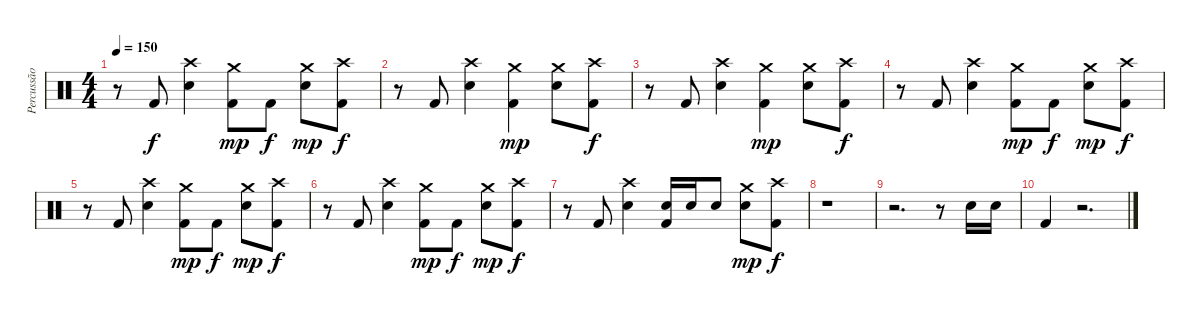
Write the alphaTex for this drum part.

\track ("Percussão" "Percussão") {instrument percussion}
\staff {score}
\articulation defaults
\ts (4 4)
\tempo 150
\clef neutral
\ks c
r.8{dy f} "Kick (hit) 2".8 ("Crash high (hit)" "Snare (hit) 2").4 ("Crash medium (hit)" "Kick (hit) 2").8{dy mp} "Kick (hit) 2".8{dy f} ("Crash medium (hit)" "Snare (hit) 2").8{dy mp} ("Crash high (hit)" "Kick (hit) 2").8{dy f} |
r.8 "Kick (hit) 2".8 ("Crash high (hit)" "Snare (hit) 2").4 ("Crash medium (hit)" "Kick (hit) 2").4{dy mp} ("Crash medium (hit)" "Snare (hit) 2").8 ("Crash high (hit)" "Kick (hit) 2").8{dy f} |
r.8 "Kick (hit) 2".8 ("Crash high (hit)" "Snare (hit) 2").4 ("Crash medium (hit)" "Kick (hit) 2").4{dy mp} ("Crash medium (hit)" "Snare (hit) 2").8 ("Crash high (hit)" "Kick (hit) 2").8{dy f} |
r.8 "Kick (hit) 2".8 ("Crash high (hit)" "Snare (hit) 2").4 ("Crash medium (hit)" "Kick (hit) 2").8{dy mp} "Kick (hit) 2".8{dy f} ("Crash medium (hit)" "Snare (hit) 2").8{dy mp} ("Crash high (hit)" "Kick (hit) 2").8{dy f} |
r.8 "Kick (hit) 2".8 ("Crash high (hit)" "Snare (hit) 2").4 ("Crash medium (hit)" "Kick (hit) 2").8{dy mp} "Kick (hit) 2".8{dy f} ("Crash medium (hit)" "Snare (hit) 2").8{dy mp} ("Crash high (hit)" "Kick (hit) 2").8{dy f} |
r.8 "Kick (hit) 2".8 ("Crash high (hit)" "Snare (hit) 2").4 ("Crash medium (hit)" "Kick (hit) 2").8{dy mp} "Kick (hit) 2".8{dy f} ("Crash medium (hit)" "Snare (hit) 2").8{dy mp} ("Crash high (hit)" "Kick (hit) 2").8{dy f} |
r.8 "Kick (hit) 2".8 ("Crash high (hit)" "Snare (hit) 2").4 ("Snare (hit) 2" "Kick (hit) 2").16 "Snare (hit) 2".16 "Snare (hit) 2".8 ("Crash medium (hit)" "Snare (hit) 2").8{dy mp} ("Crash high (hit)" "Kick (hit) 2").8{dy f} |
r.1 |
r.2{d} r.8 "Snare (hit) 2".16 "Snare (hit) 2".16 |
"Kick (hit) 2".4 r.2{d}
